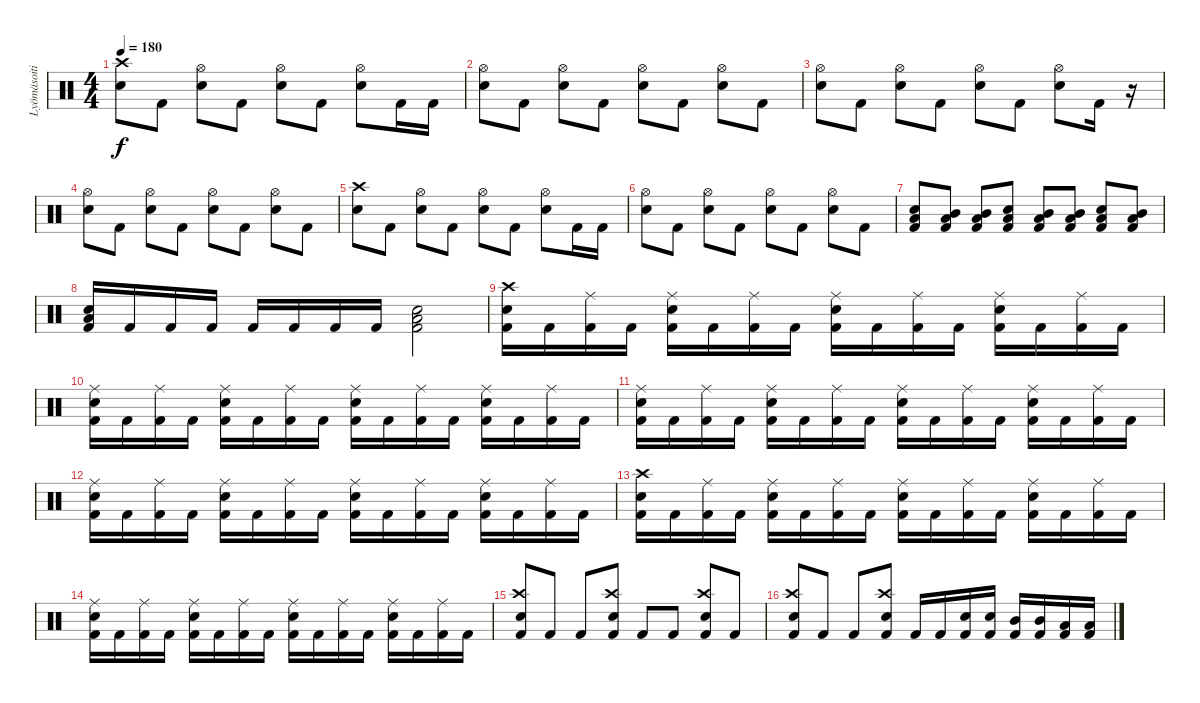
\track ("Lyömäsoitin" "Lyömäsoiti") {instrument percussion}
\staff {score}
\articulation defaults
\ts (4 4)
\tempo 180
\clef neutral
\ks c
("Electric Snare (hit)" "Crash high (hit)").8{dy f} "Kick (hit) 2".8 ("Electric Snare (hit)" "Hi-Hat (open)").8 "Kick (hit) 2".8 ("Electric Snare (hit)" "Hi-Hat (open)").8 "Kick (hit) 2".8 ("Electric Snare (hit)" "Hi-Hat (open)").8 "Kick (hit) 2".16 "Kick (hit) 2".16 |
("Electric Snare (hit)" "Hi-Hat (open)").8 "Kick (hit) 2".8 ("Electric Snare (hit)" "Hi-Hat (open)").8 "Kick (hit) 2".8 ("Electric Snare (hit)" "Hi-Hat (open)").8 "Kick (hit) 2".8 ("Electric Snare (hit)" "Hi-Hat (open)").8 "Kick (hit) 2".8 |
("Electric Snare (hit)" "Hi-Hat (open)").8 "Kick (hit) 2".8 ("Electric Snare (hit)" "Hi-Hat (open)").8 "Kick (hit) 2".8 ("Electric Snare (hit)" "Hi-Hat (open)").8 "Kick (hit) 2".8 ("Electric Snare (hit)" "Hi-Hat (open)").8 "Kick (hit) 2".16 r.16 |
("Electric Snare (hit)" "Hi-Hat (open)").8 "Kick (hit) 2".8 ("Electric Snare (hit)" "Hi-Hat (open)").8 "Kick (hit) 2".8 ("Electric Snare (hit)" "Hi-Hat (open)").8 "Kick (hit) 2".8 ("Electric Snare (hit)" "Hi-Hat (open)").8 "Kick (hit) 2".8 |
("Electric Snare (hit)" "Crash high (hit)").8 "Kick (hit) 2".8 ("Electric Snare (hit)" "Hi-Hat (open)").8 "Kick (hit) 2".8 ("Electric Snare (hit)" "Hi-Hat (open)").8 "Kick (hit) 2".8 ("Electric Snare (hit)" "Hi-Hat (open)").8 "Kick (hit) 2".16 "Kick (hit) 2".16 |
("Electric Snare (hit)" "Hi-Hat (open)").8 "Kick (hit) 2".8 ("Electric Snare (hit)" "Hi-Hat (open)").8 "Kick (hit) 2".8 ("Electric Snare (hit)" "Hi-Hat (open)").8 "Kick (hit) 2".8 ("Electric Snare (hit)" "Hi-Hat (open)").8 "Kick (hit) 2".8 |
("Kick (hit) 2" "Electric Snare (hit)" "Low Tom (hit)").8 ("Kick (hit) 2" "Mid Tom (hit)" "Low Tom (hit)").8 ("Kick (hit) 2" "Mid Tom (hit)" "Low Tom (hit)").8 ("Kick (hit) 2" "Electric Snare (hit)" "Low Tom (hit)").8 ("Kick (hit) 2" "Mid Tom (hit)" "Low Tom (hit)").8 ("Kick (hit) 2" "Mid Tom (hit)" "Low Tom (hit)").8 ("Kick (hit) 2" "Electric Snare (hit)" "Low Tom (hit)").8 ("Kick (hit) 2" "Mid Tom (hit)" "Low Tom (hit)").8 |
("Kick (hit) 2" "Electric Snare (hit)" "Low Tom (hit)").16 "Kick (hit) 2".16 "Kick (hit) 2".16 "Kick (hit) 2".16 "Kick (hit) 2".16 "Kick (hit) 2".16 "Kick (hit) 2".16 "Kick (hit) 2".16 ("Kick (hit) 2" "Electric Snare (hit)" "Low Tom (hit)").2 |
("Kick (hit) 2" "Electric Snare (hit)" "Crash high (hit)").16 "Kick (hit) 2".16 ("Kick (hit) 2" "Ride (middle)").16 "Kick (hit) 2".16 ("Kick (hit) 2" "Electric Snare (hit)" "Ride (middle)").16 "Kick (hit) 2".16 ("Kick (hit) 2" "Ride (middle)").16 "Kick (hit) 2".16 ("Kick (hit) 2" "Electric Snare (hit)" "Ride (middle)").16 "Kick (hit) 2".16 ("Kick (hit) 2" "Ride (middle)").16 "Kick (hit) 2".16 ("Kick (hit) 2" "Electric Snare (hit)" "Ride (middle)").16 "Kick (hit) 2".16 ("Kick (hit) 2" "Ride (middle)").16 "Kick (hit) 2".16 |
("Kick (hit) 2" "Electric Snare (hit)" "Ride (middle)").16 "Kick (hit) 2".16 ("Kick (hit) 2" "Ride (middle)").16 "Kick (hit) 2".16 ("Kick (hit) 2" "Electric Snare (hit)" "Ride (middle)").16 "Kick (hit) 2".16 ("Kick (hit) 2" "Ride (middle)").16 "Kick (hit) 2".16 ("Kick (hit) 2" "Electric Snare (hit)" "Ride (middle)").16 "Kick (hit) 2".16 ("Kick (hit) 2" "Ride (middle)").16 "Kick (hit) 2".16 ("Kick (hit) 2" "Electric Snare (hit)" "Ride (middle)").16 "Kick (hit) 2".16 ("Kick (hit) 2" "Ride (middle)").16 "Kick (hit) 2".16 |
("Kick (hit) 2" "Electric Snare (hit)" "Ride (middle)").16 "Kick (hit) 2".16 ("Kick (hit) 2" "Ride (middle)").16 "Kick (hit) 2".16 ("Kick (hit) 2" "Electric Snare (hit)" "Ride (middle)").16 "Kick (hit) 2".16 ("Kick (hit) 2" "Ride (middle)").16 "Kick (hit) 2".16 ("Kick (hit) 2" "Electric Snare (hit)" "Ride (middle)").16 "Kick (hit) 2".16 ("Kick (hit) 2" "Ride (middle)").16 "Kick (hit) 2".16 ("Kick (hit) 2" "Electric Snare (hit)" "Ride (middle)").16 "Kick (hit) 2".16 ("Kick (hit) 2" "Ride (middle)").16 "Kick (hit) 2".16 |
("Kick (hit) 2" "Electric Snare (hit)" "Ride (middle)").16 "Kick (hit) 2".16 ("Kick (hit) 2" "Ride (middle)").16 "Kick (hit) 2".16 ("Kick (hit) 2" "Electric Snare (hit)" "Ride (middle)").16 "Kick (hit) 2".16 ("Kick (hit) 2" "Ride (middle)").16 "Kick (hit) 2".16 ("Kick (hit) 2" "Electric Snare (hit)" "Ride (middle)").16 "Kick (hit) 2".16 ("Kick (hit) 2" "Ride (middle)").16 "Kick (hit) 2".16 ("Kick (hit) 2" "Electric Snare (hit)" "Ride (middle)").16 "Kick (hit) 2".16 ("Kick (hit) 2" "Ride (middle)").16 "Kick (hit) 2".16 |
("Kick (hit) 2" "Electric Snare (hit)" "Crash high (hit)").16 "Kick (hit) 2".16 ("Kick (hit) 2" "Ride (middle)").16 "Kick (hit) 2".16 ("Kick (hit) 2" "Electric Snare (hit)" "Ride (middle)").16 "Kick (hit) 2".16 ("Kick (hit) 2" "Ride (middle)").16 "Kick (hit) 2".16 ("Kick (hit) 2" "Electric Snare (hit)" "Ride (middle)").16 "Kick (hit) 2".16 ("Kick (hit) 2" "Ride (middle)").16 "Kick (hit) 2".16 ("Kick (hit) 2" "Electric Snare (hit)" "Ride (middle)").16 "Kick (hit) 2".16 ("Kick (hit) 2" "Ride (middle)").16 "Kick (hit) 2".16 |
("Kick (hit) 2" "Electric Snare (hit)" "Ride (middle)").16 "Kick (hit) 2".16 ("Kick (hit) 2" "Ride (middle)").16 "Kick (hit) 2".16 ("Kick (hit) 2" "Electric Snare (hit)" "Ride (middle)").16 "Kick (hit) 2".16 ("Kick (hit) 2" "Ride (middle)").16 "Kick (hit) 2".16 ("Kick (hit) 2" "Electric Snare (hit)" "Ride (middle)").16 "Kick (hit) 2".16 ("Kick (hit) 2" "Ride (middle)").16 "Kick (hit) 2".16 ("Kick (hit) 2" "Electric Snare (hit)" "Ride (middle)").16 "Kick (hit) 2".16 ("Kick (hit) 2" "Ride (middle)").16 "Kick (hit) 2".16 |
("Kick (hit) 2" "Electric Snare (hit)" "Crash high (hit)").8 "Kick (hit) 2".8 "Kick (hit) 2".8 ("Kick (hit) 2" "Electric Snare (hit)" "Crash high (hit)").8 "Kick (hit) 2".8 "Kick (hit) 2".8 ("Kick (hit) 2" "Electric Snare (hit)" "Crash high (hit)").8 "Kick (hit) 2".8 |
("Kick (hit) 2" "Electric Snare (hit)" "Crash high (hit)").8 "Kick (hit) 2".8 "Kick (hit) 2".8 ("Kick (hit) 2" "Electric Snare (hit)" "Crash high (hit)").8 "Kick (hit) 2".16 "Kick (hit) 2".16 ("Kick (hit) 2" "Electric Snare (hit)").16 ("Kick (hit) 2" "Electric Snare (hit)").16 ("Kick (hit) 2" "Mid Tom (hit)").16 ("Kick (hit) 2" "Mid Tom (hit)").16 ("Kick (hit) 2" "Low Tom (hit)").16 ("Kick (hit) 2" "Low Tom (hit)").16
